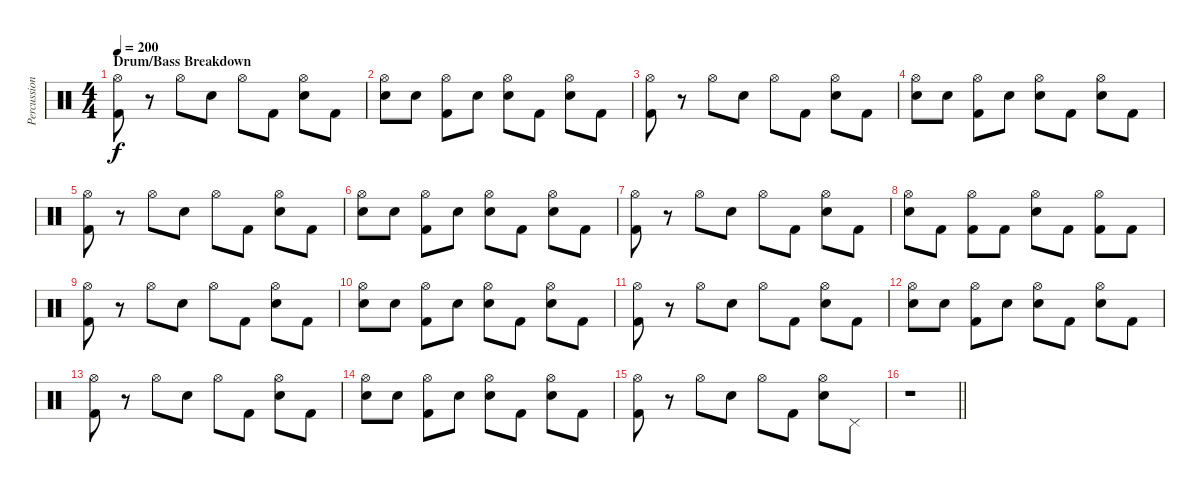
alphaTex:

\track ("Percussion" "Percussion") {instrument percussion}
\staff {score}
\articulation defaults
\ts (4 4)
\section ("" "Drum/Bass Breakdown")
\tempo 200
\clef neutral
\ks c
("Hi-Hat (open)" "Kick (hit) 2").8{dy f} r.8 "Hi-Hat (open)".8 "Electric Snare (hit)".8 "Hi-Hat (open)".8 "Kick (hit) 2".8 ("Hi-Hat (open)" "Electric Snare (hit)").8 "Kick (hit) 2".8 |
("Hi-Hat (open)" "Electric Snare (hit)").8 "Electric Snare (hit)".8 ("Hi-Hat (open)" "Kick (hit) 2").8 "Electric Snare (hit)".8 ("Hi-Hat (open)" "Electric Snare (hit)").8 "Kick (hit) 2".8 ("Hi-Hat (open)" "Electric Snare (hit)").8 "Kick (hit) 2".8 |
("Hi-Hat (open)" "Kick (hit) 2").8 r.8 "Hi-Hat (open)".8 "Electric Snare (hit)".8 "Hi-Hat (open)".8 "Kick (hit) 2".8 ("Hi-Hat (open)" "Electric Snare (hit)").8 "Kick (hit) 2".8 |
("Hi-Hat (open)" "Electric Snare (hit)").8 "Electric Snare (hit)".8 ("Hi-Hat (open)" "Kick (hit) 2").8 "Electric Snare (hit)".8 ("Hi-Hat (open)" "Electric Snare (hit)").8 "Kick (hit) 2".8 ("Hi-Hat (open)" "Electric Snare (hit)").8 "Kick (hit) 2".8 |
("Hi-Hat (open)" "Kick (hit) 2").8 r.8 "Hi-Hat (open)".8 "Electric Snare (hit)".8 "Hi-Hat (open)".8 "Kick (hit) 2".8 ("Hi-Hat (open)" "Electric Snare (hit)").8 "Kick (hit) 2".8 |
("Hi-Hat (open)" "Electric Snare (hit)").8 "Electric Snare (hit)".8 ("Hi-Hat (open)" "Kick (hit) 2").8 "Electric Snare (hit)".8 ("Hi-Hat (open)" "Electric Snare (hit)").8 "Kick (hit) 2".8 ("Hi-Hat (open)" "Electric Snare (hit)").8 "Kick (hit) 2".8 |
("Hi-Hat (open)" "Kick (hit) 2").8 r.8 "Hi-Hat (open)".8 "Electric Snare (hit)".8 "Hi-Hat (open)".8 "Kick (hit) 2".8 ("Hi-Hat (open)" "Electric Snare (hit)").8 "Kick (hit) 2".8 |
("Hi-Hat (open)" "Electric Snare (hit)").8 "Kick (hit) 2".8 ("Hi-Hat (open)" "Kick (hit) 2").8 "Kick (hit) 2".8 ("Hi-Hat (open)" "Electric Snare (hit)").8 "Kick (hit) 2".8 ("Hi-Hat (open)" "Kick (hit) 2").8 "Kick (hit) 2".8 |
("Hi-Hat (open)" "Kick (hit) 2").8 r.8 "Hi-Hat (open)".8 "Electric Snare (hit)".8 "Hi-Hat (open)".8 "Kick (hit) 2".8 ("Hi-Hat (open)" "Electric Snare (hit)").8 "Kick (hit) 2".8 |
("Hi-Hat (open)" "Electric Snare (hit)").8 "Electric Snare (hit)".8 ("Hi-Hat (open)" "Kick (hit) 2").8 "Electric Snare (hit)".8 ("Hi-Hat (open)" "Electric Snare (hit)").8 "Kick (hit) 2".8 ("Hi-Hat (open)" "Electric Snare (hit)").8 "Kick (hit) 2".8 |
("Hi-Hat (open)" "Kick (hit) 2").8 r.8 "Hi-Hat (open)".8 "Electric Snare (hit)".8 "Hi-Hat (open)".8 "Kick (hit) 2".8 ("Hi-Hat (open)" "Electric Snare (hit)").8 "Kick (hit) 2".8 |
("Hi-Hat (open)" "Electric Snare (hit)").8 "Electric Snare (hit)".8 ("Hi-Hat (open)" "Kick (hit) 2").8 "Electric Snare (hit)".8 ("Hi-Hat (open)" "Electric Snare (hit)").8 "Kick (hit) 2".8 ("Hi-Hat (open)" "Electric Snare (hit)").8 "Kick (hit) 2".8 |
("Hi-Hat (open)" "Kick (hit) 2").8 r.8 "Hi-Hat (open)".8 "Electric Snare (hit)".8 "Hi-Hat (open)".8 "Kick (hit) 2".8 ("Hi-Hat (open)" "Electric Snare (hit)").8 "Kick (hit) 2".8 |
("Hi-Hat (open)" "Electric Snare (hit)").8 "Electric Snare (hit)".8 ("Hi-Hat (open)" "Kick (hit) 2").8 "Electric Snare (hit)".8 ("Hi-Hat (open)" "Electric Snare (hit)").8 "Kick (hit) 2".8 ("Hi-Hat (open)" "Electric Snare (hit)").8 "Kick (hit) 2".8 |
("Hi-Hat (open)" "Kick (hit) 2").8 r.8 "Hi-Hat (open)".8 "Electric Snare (hit)".8 "Hi-Hat (open)".8 "Kick (hit) 2".8 ("Hi-Hat (open)" "Electric Snare (hit)").8 "Pedal Hi-Hat (hit)".8 |
\barLineRight lightlight
r.1
